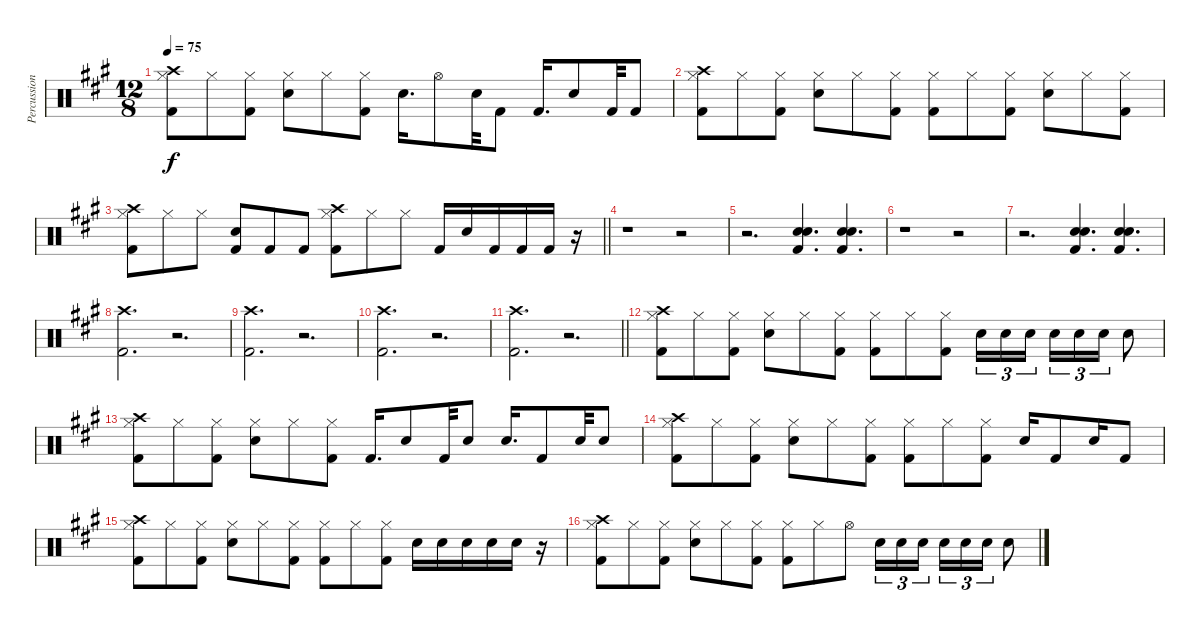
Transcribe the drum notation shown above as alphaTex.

\track ("Percussions" "Percussion") {instrument percussion}
\staff {score}
\articulation defaults
\ts (12 8)
\tempo 75
\clef neutral
\ks a
("Crash high (hit)" "Hi-Hat (closed)" "Kick (hit) 2").8{dy f} "Hi-Hat (closed)".8 ("Hi-Hat (closed)" "Kick (hit) 2").8 ("Hi-Hat (closed)" "Snare (hit) 2").8 "Hi-Hat (closed)".8 ("Hi-Hat (closed)" "Kick (hit) 2").8 "Snare (hit) 2".16{d} "Hi-Hat (open)".8 "Snare (hit) 2".32 "Kick (hit) 2".8 "Kick (hit) 2".16{d} "Snare (hit) 2".8 "Kick (hit) 2".32 "Kick (hit) 2".8 |
("Crash high (hit)" "Hi-Hat (closed)" "Kick (hit) 2").8 "Hi-Hat (closed)".8 ("Hi-Hat (closed)" "Kick (hit) 2").8 ("Hi-Hat (closed)" "Snare (hit) 2").8 "Hi-Hat (closed)".8 ("Hi-Hat (closed)" "Kick (hit) 2").8 ("Hi-Hat (closed)" "Kick (hit) 2").8 "Hi-Hat (closed)".8 ("Hi-Hat (closed)" "Kick (hit) 2").8 ("Hi-Hat (closed)" "Snare (hit) 2").8 "Hi-Hat (closed)".8 ("Hi-Hat (closed)" "Kick (hit) 2").8 |
\barLineRight lightlight
("Crash high (hit)" "Hi-Hat (closed)" "Kick (hit) 2").8 "Hi-Hat (closed)".8 "Hi-Hat (closed)".8 ("Snare (hit) 2" "Kick (hit) 2").8 "Kick (hit) 2".8 "Kick (hit) 2".8 ("Crash high (hit)" "Hi-Hat (closed)" "Kick (hit) 2").8 "Hi-Hat (closed)".8 "Hi-Hat (closed)".8 "Kick (hit) 2".16 "Snare (hit) 2".16 "Kick (hit) 2".16 "Kick (hit) 2".16 "Kick (hit) 2".16 r.16 |
r.1 r.2 |
r.2{d} ("Snare (hit) 2" "Snare (hit) 2" "Kick (hit) 2").4{d} ("Snare (hit) 2" "Snare (hit) 2" "Kick (hit) 2").4{d} |
r.1 r.2 |
r.2{d} ("Snare (hit) 2" "Snare (hit) 2" "Kick (hit) 2").4{d} ("Snare (hit) 2" "Snare (hit) 2" "Kick (hit) 2").4{d} |
("Crash high (hit)" "Kick (hit) 2").2{d} r.2{d} |
("Crash high (hit)" "Kick (hit) 2").2{d} r.2{d} |
("Crash high (hit)" "Kick (hit) 2").2{d} r.2{d} |
\barLineRight lightlight
("Crash high (hit)" "Kick (hit) 2").2{d} r.2{d} |
("Crash high (hit)" "Hi-Hat (closed)" "Kick (hit) 2").8 "Hi-Hat (closed)".8 ("Hi-Hat (closed)" "Kick (hit) 2").8 ("Hi-Hat (closed)" "Snare (hit) 2").8 "Hi-Hat (closed)".8 ("Hi-Hat (closed)" "Kick (hit) 2").8 ("Hi-Hat (closed)" "Kick (hit) 2").8 "Hi-Hat (closed)".8 ("Hi-Hat (closed)" "Kick (hit) 2").8 "Snare (hit) 2".16{tu (3 2)} "Snare (hit) 2".16{tu (3 2)} "Snare (hit) 2".16{tu (3 2) beam splitsecondary} "Snare (hit) 2".16{tu (3 2)} "Snare (hit) 2".16{tu (3 2)} "Snare (hit) 2".16{tu (3 2)} "Snare (hit) 2".8 |
("Crash high (hit)" "Hi-Hat (closed)" "Kick (hit) 2").8 "Hi-Hat (closed)".8 ("Hi-Hat (closed)" "Kick (hit) 2").8 ("Hi-Hat (closed)" "Snare (hit) 2").8 "Hi-Hat (closed)".8 ("Hi-Hat (closed)" "Kick (hit) 2").8 "Kick (hit) 2".16{d} "Snare (hit) 2".8 "Kick (hit) 2".32 "Snare (hit) 2".8 "Snare (hit) 2".16{d} "Kick (hit) 2".8 "Snare (hit) 2".32 "Snare (hit) 2".8 |
("Crash high (hit)" "Hi-Hat (closed)" "Kick (hit) 2").8 "Hi-Hat (closed)".8 ("Hi-Hat (closed)" "Kick (hit) 2").8 ("Hi-Hat (closed)" "Snare (hit) 2").8 "Hi-Hat (closed)".8 ("Hi-Hat (closed)" "Kick (hit) 2").8 ("Hi-Hat (closed)" "Kick (hit) 2").8 "Hi-Hat (closed)".8 ("Hi-Hat (closed)" "Kick (hit) 2").8 "Snare (hit) 2".16 "Kick (hit) 2".8 "Snare (hit) 2".16 "Kick (hit) 2".8 |
("Crash high (hit)" "Hi-Hat (closed)" "Kick (hit) 2").8 "Hi-Hat (closed)".8 ("Hi-Hat (closed)" "Kick (hit) 2").8 ("Hi-Hat (closed)" "Snare (hit) 2").8 "Hi-Hat (closed)".8 ("Hi-Hat (closed)" "Kick (hit) 2").8 ("Hi-Hat (closed)" "Kick (hit) 2").8 "Hi-Hat (closed)".8 ("Hi-Hat (closed)" "Kick (hit) 2").8 "Snare (hit) 2".16 "Snare (hit) 2".16 "Snare (hit) 2".16 "Snare (hit) 2".16 "Snare (hit) 2".16 r.16 |
("Crash high (hit)" "Hi-Hat (closed)" "Kick (hit) 2").8 "Hi-Hat (closed)".8 ("Hi-Hat (closed)" "Kick (hit) 2").8 ("Hi-Hat (closed)" "Snare (hit) 2").8 "Hi-Hat (closed)".8 ("Hi-Hat (closed)" "Kick (hit) 2").8 ("Hi-Hat (closed)" "Kick (hit) 2").8 "Hi-Hat (closed)".8 "Hi-Hat (open)".8 "Snare (hit) 2".16{tu (3 2)} "Snare (hit) 2".16{tu (3 2)} "Snare (hit) 2".16{tu (3 2) beam splitsecondary} "Snare (hit) 2".16{tu (3 2)} "Snare (hit) 2".16{tu (3 2)} "Snare (hit) 2".16{tu (3 2)} "Snare (hit) 2".8
